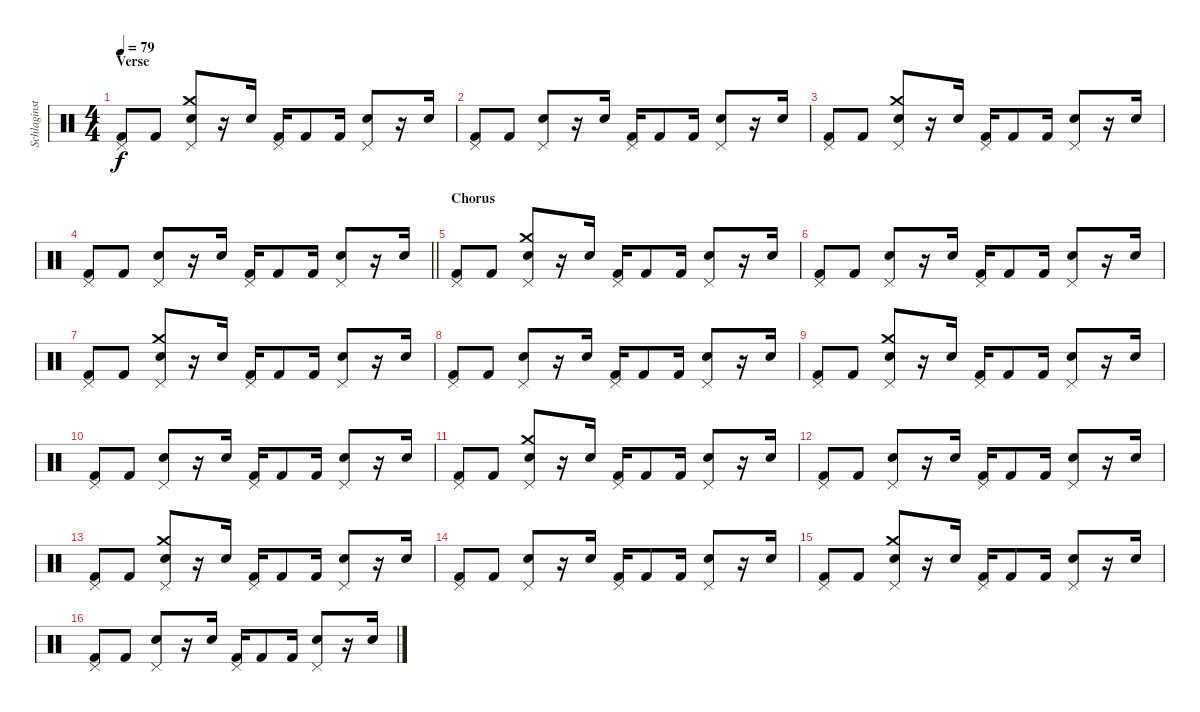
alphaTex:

\track ("Schlaginstrumente - Auswahl" "Schlaginst") {instrument percussion}
\staff {score}
\articulation defaults
\ts (4 4)
\section ("" "Verse")
\tempo 79
\clef neutral
\ks c
("Pedal Hi-Hat (hit)" "Kick (hit) 2").8{dy f} "Kick (hit) 2".8 ("Pedal Hi-Hat (hit)" "Crash medium (hit)" "Snare (hit) 2").8 r.16 "Snare (hit) 2".16 ("Pedal Hi-Hat (hit)" "Kick (hit) 2").16 "Kick (hit) 2".8 "Kick (hit) 2".16 ("Pedal Hi-Hat (hit)" "Snare (hit) 2").8 r.16 "Snare (hit) 2".16 |
("Pedal Hi-Hat (hit)" "Kick (hit) 2").8 "Kick (hit) 2".8 ("Pedal Hi-Hat (hit)" "Snare (hit) 2").8 r.16 "Snare (hit) 2".16 ("Pedal Hi-Hat (hit)" "Kick (hit) 2").16 "Kick (hit) 2".8 "Kick (hit) 2".16 ("Pedal Hi-Hat (hit)" "Snare (hit) 2").8 r.16 "Snare (hit) 2".16 |
("Pedal Hi-Hat (hit)" "Kick (hit) 2").8 "Kick (hit) 2".8 ("Pedal Hi-Hat (hit)" "Crash medium (hit)" "Snare (hit) 2").8 r.16 "Snare (hit) 2".16 ("Pedal Hi-Hat (hit)" "Kick (hit) 2").16 "Kick (hit) 2".8 "Kick (hit) 2".16 ("Pedal Hi-Hat (hit)" "Snare (hit) 2").8 r.16 "Snare (hit) 2".16 |
\barLineRight lightlight
("Pedal Hi-Hat (hit)" "Kick (hit) 2").8 "Kick (hit) 2".8 ("Pedal Hi-Hat (hit)" "Snare (hit) 2").8 r.16 "Snare (hit) 2".16 ("Pedal Hi-Hat (hit)" "Kick (hit) 2").16 "Kick (hit) 2".8 "Kick (hit) 2".16 ("Pedal Hi-Hat (hit)" "Snare (hit) 2").8 r.16 "Snare (hit) 2".16 |
\section ("" "Chorus")
("Pedal Hi-Hat (hit)" "Kick (hit) 2").8 "Kick (hit) 2".8 ("Pedal Hi-Hat (hit)" "Crash medium (hit)" "Snare (hit) 2").8 r.16 "Snare (hit) 2".16 ("Pedal Hi-Hat (hit)" "Kick (hit) 2").16 "Kick (hit) 2".8 "Kick (hit) 2".16 ("Pedal Hi-Hat (hit)" "Snare (hit) 2").8 r.16 "Snare (hit) 2".16 |
("Pedal Hi-Hat (hit)" "Kick (hit) 2").8 "Kick (hit) 2".8 ("Pedal Hi-Hat (hit)" "Snare (hit) 2").8 r.16 "Snare (hit) 2".16 ("Pedal Hi-Hat (hit)" "Kick (hit) 2").16 "Kick (hit) 2".8 "Kick (hit) 2".16 ("Pedal Hi-Hat (hit)" "Snare (hit) 2").8 r.16 "Snare (hit) 2".16 |
("Pedal Hi-Hat (hit)" "Kick (hit) 2").8 "Kick (hit) 2".8 ("Pedal Hi-Hat (hit)" "Crash medium (hit)" "Snare (hit) 2").8 r.16 "Snare (hit) 2".16 ("Pedal Hi-Hat (hit)" "Kick (hit) 2").16 "Kick (hit) 2".8 "Kick (hit) 2".16 ("Pedal Hi-Hat (hit)" "Snare (hit) 2").8 r.16 "Snare (hit) 2".16 |
("Pedal Hi-Hat (hit)" "Kick (hit) 2").8 "Kick (hit) 2".8 ("Pedal Hi-Hat (hit)" "Snare (hit) 2").8 r.16 "Snare (hit) 2".16 ("Pedal Hi-Hat (hit)" "Kick (hit) 2").16 "Kick (hit) 2".8 "Kick (hit) 2".16 ("Pedal Hi-Hat (hit)" "Snare (hit) 2").8 r.16 "Snare (hit) 2".16 |
("Pedal Hi-Hat (hit)" "Kick (hit) 2").8 "Kick (hit) 2".8 ("Pedal Hi-Hat (hit)" "Crash medium (hit)" "Snare (hit) 2").8 r.16 "Snare (hit) 2".16 ("Pedal Hi-Hat (hit)" "Kick (hit) 2").16 "Kick (hit) 2".8 "Kick (hit) 2".16 ("Pedal Hi-Hat (hit)" "Snare (hit) 2").8 r.16 "Snare (hit) 2".16 |
("Pedal Hi-Hat (hit)" "Kick (hit) 2").8 "Kick (hit) 2".8 ("Pedal Hi-Hat (hit)" "Snare (hit) 2").8 r.16 "Snare (hit) 2".16 ("Pedal Hi-Hat (hit)" "Kick (hit) 2").16 "Kick (hit) 2".8 "Kick (hit) 2".16 ("Pedal Hi-Hat (hit)" "Snare (hit) 2").8 r.16 "Snare (hit) 2".16 |
("Pedal Hi-Hat (hit)" "Kick (hit) 2").8 "Kick (hit) 2".8 ("Pedal Hi-Hat (hit)" "Crash medium (hit)" "Snare (hit) 2").8 r.16 "Snare (hit) 2".16 ("Pedal Hi-Hat (hit)" "Kick (hit) 2").16 "Kick (hit) 2".8 "Kick (hit) 2".16 ("Pedal Hi-Hat (hit)" "Snare (hit) 2").8 r.16 "Snare (hit) 2".16 |
("Pedal Hi-Hat (hit)" "Kick (hit) 2").8 "Kick (hit) 2".8 ("Pedal Hi-Hat (hit)" "Snare (hit) 2").8 r.16 "Snare (hit) 2".16 ("Pedal Hi-Hat (hit)" "Kick (hit) 2").16 "Kick (hit) 2".8 "Kick (hit) 2".16 ("Pedal Hi-Hat (hit)" "Snare (hit) 2").8 r.16 "Snare (hit) 2".16 |
("Pedal Hi-Hat (hit)" "Kick (hit) 2").8 "Kick (hit) 2".8 ("Pedal Hi-Hat (hit)" "Crash medium (hit)" "Snare (hit) 2").8 r.16 "Snare (hit) 2".16 ("Pedal Hi-Hat (hit)" "Kick (hit) 2").16 "Kick (hit) 2".8 "Kick (hit) 2".16 ("Pedal Hi-Hat (hit)" "Snare (hit) 2").8 r.16 "Snare (hit) 2".16 |
("Pedal Hi-Hat (hit)" "Kick (hit) 2").8 "Kick (hit) 2".8 ("Pedal Hi-Hat (hit)" "Snare (hit) 2").8 r.16 "Snare (hit) 2".16 ("Pedal Hi-Hat (hit)" "Kick (hit) 2").16 "Kick (hit) 2".8 "Kick (hit) 2".16 ("Pedal Hi-Hat (hit)" "Snare (hit) 2").8 r.16 "Snare (hit) 2".16 |
("Pedal Hi-Hat (hit)" "Kick (hit) 2").8 "Kick (hit) 2".8 ("Pedal Hi-Hat (hit)" "Crash medium (hit)" "Snare (hit) 2").8 r.16 "Snare (hit) 2".16 ("Pedal Hi-Hat (hit)" "Kick (hit) 2").16 "Kick (hit) 2".8 "Kick (hit) 2".16 ("Pedal Hi-Hat (hit)" "Snare (hit) 2").8 r.16 "Snare (hit) 2".16 |
("Pedal Hi-Hat (hit)" "Kick (hit) 2").8 "Kick (hit) 2".8 ("Pedal Hi-Hat (hit)" "Snare (hit) 2").8 r.16 "Snare (hit) 2".16 ("Pedal Hi-Hat (hit)" "Kick (hit) 2").16 "Kick (hit) 2".8 "Kick (hit) 2".16 ("Pedal Hi-Hat (hit)" "Snare (hit) 2").8 r.16 "Snare (hit) 2".16
